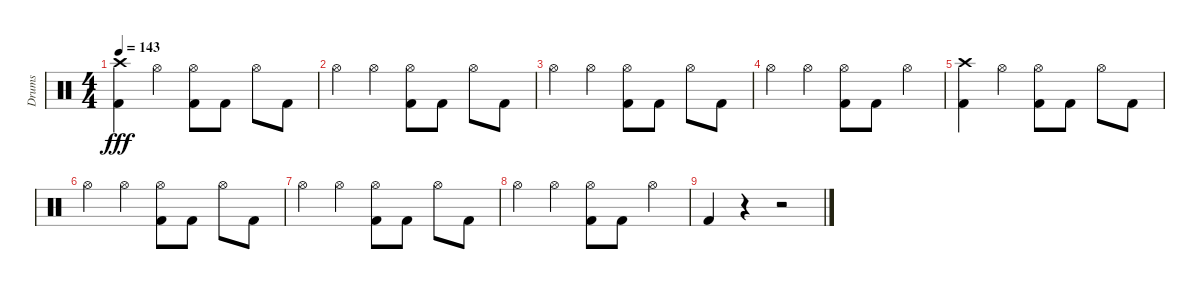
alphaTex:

\track ("Drums" "Drums") {instrument percussion}
\staff {score}
\articulation defaults
\ts (4 4)
\tempo 143
\clef neutral
\ks c
("Crash high (hit)" "Kick (hit) 2").4{dy fff} "Hi-Hat (open)".4 ("Hi-Hat (open)" "Kick (hit) 2").8 "Kick (hit) 2".8 "Hi-Hat (open)".8 "Kick (hit) 2".8 |
"Hi-Hat (open)".4 "Hi-Hat (open)".4 ("Hi-Hat (open)" "Kick (hit) 2").8 "Kick (hit) 2".8 "Hi-Hat (open)".8 "Kick (hit) 2".8 |
"Hi-Hat (open)".4 "Hi-Hat (open)".4 ("Hi-Hat (open)" "Kick (hit) 2").8 "Kick (hit) 2".8 "Hi-Hat (open)".8 "Kick (hit) 2".8 |
"Hi-Hat (open)".4 "Hi-Hat (open)".4 ("Hi-Hat (open)" "Kick (hit) 2").8 "Kick (hit) 2".8 "Hi-Hat (open)".4 |
("Crash high (hit)" "Kick (hit) 2").4 "Hi-Hat (open)".4 ("Hi-Hat (open)" "Kick (hit) 2").8 "Kick (hit) 2".8 "Hi-Hat (open)".8 "Kick (hit) 2".8 |
"Hi-Hat (open)".4 "Hi-Hat (open)".4 ("Hi-Hat (open)" "Kick (hit) 2").8 "Kick (hit) 2".8 "Hi-Hat (open)".8 "Kick (hit) 2".8 |
"Hi-Hat (open)".4 "Hi-Hat (open)".4 ("Hi-Hat (open)" "Kick (hit) 2").8 "Kick (hit) 2".8 "Hi-Hat (open)".8 "Kick (hit) 2".8 |
"Hi-Hat (open)".4 "Hi-Hat (open)".4 ("Hi-Hat (open)" "Kick (hit) 2").8 "Kick (hit) 2".8 "Hi-Hat (open)".4 |
"Kick (hit) 2".4 r.4 r.2
